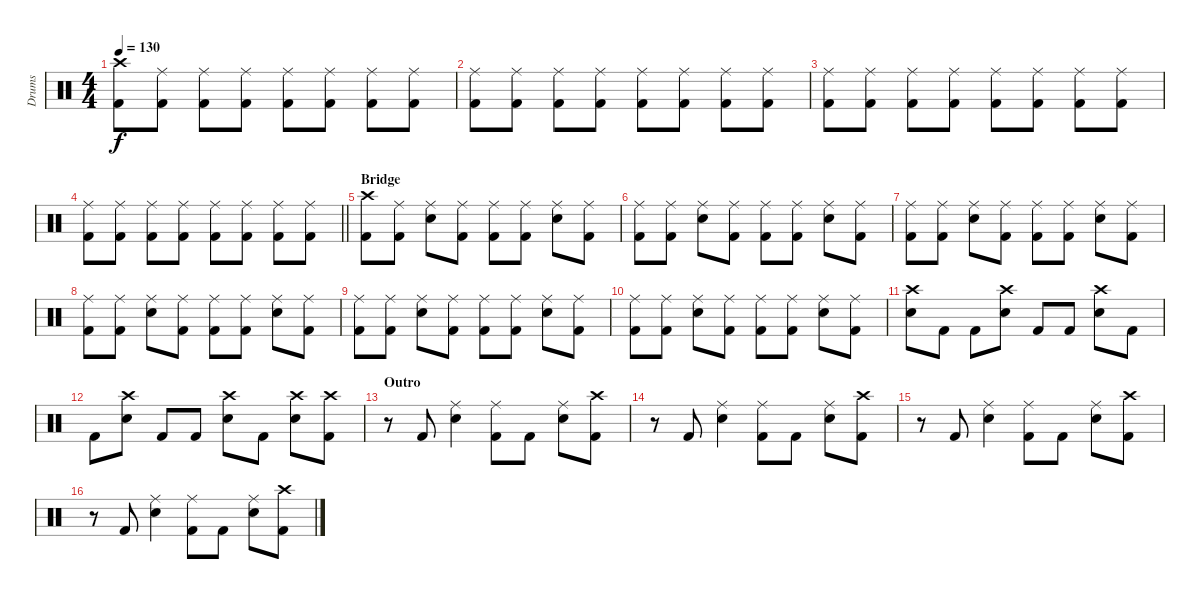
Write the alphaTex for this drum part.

\track ("Drums" "Drums") {instrument percussion}
\staff {score}
\articulation defaults
\ts (4 4)
\tempo 130
\clef neutral
\ks c
("Crash high (hit)" "Kick (hit) 2").8{dy f} ("Ride (middle)" "Kick (hit) 2").8 ("Ride (middle)" "Kick (hit) 2").8 ("Ride (middle)" "Kick (hit) 2").8 ("Ride (middle)" "Kick (hit) 2").8 ("Ride (middle)" "Kick (hit) 2").8 ("Ride (middle)" "Kick (hit) 2").8 ("Ride (middle)" "Kick (hit) 2").8 |
("Ride (middle)" "Kick (hit) 2").8 ("Ride (middle)" "Kick (hit) 2").8 ("Ride (middle)" "Kick (hit) 2").8 ("Ride (middle)" "Kick (hit) 2").8 ("Ride (middle)" "Kick (hit) 2").8 ("Ride (middle)" "Kick (hit) 2").8 ("Ride (middle)" "Kick (hit) 2").8 ("Ride (middle)" "Kick (hit) 2").8 |
("Ride (middle)" "Kick (hit) 2").8 ("Ride (middle)" "Kick (hit) 2").8 ("Ride (middle)" "Kick (hit) 2").8 ("Ride (middle)" "Kick (hit) 2").8 ("Ride (middle)" "Kick (hit) 2").8 ("Ride (middle)" "Kick (hit) 2").8 ("Ride (middle)" "Kick (hit) 2").8 ("Ride (middle)" "Kick (hit) 2").8 |
\barLineRight lightlight
("Ride (middle)" "Kick (hit) 2").8 ("Ride (middle)" "Kick (hit) 2").8 ("Ride (middle)" "Kick (hit) 2").8 ("Ride (middle)" "Kick (hit) 2").8 ("Ride (middle)" "Kick (hit) 2").8 ("Ride (middle)" "Kick (hit) 2").8 ("Ride (middle)" "Kick (hit) 2").8 ("Ride (middle)" "Kick (hit) 2").8 |
\section ("" "Bridge")
("Crash high (hit)" "Kick (hit) 2").8 ("Ride (middle)" "Kick (hit) 2").8 ("Ride (middle)" "Electric Snare (hit)").8 ("Ride (middle)" "Kick (hit) 2").8 ("Ride (middle)" "Kick (hit) 2").8 ("Ride (middle)" "Kick (hit) 2").8 ("Ride (middle)" "Electric Snare (hit)").8 ("Ride (middle)" "Kick (hit) 2").8 |
("Ride (middle)" "Kick (hit) 2").8 ("Ride (middle)" "Kick (hit) 2").8 ("Ride (middle)" "Electric Snare (hit)").8 ("Ride (middle)" "Kick (hit) 2").8 ("Ride (middle)" "Kick (hit) 2").8 ("Ride (middle)" "Kick (hit) 2").8 ("Ride (middle)" "Electric Snare (hit)").8 ("Ride (middle)" "Kick (hit) 2").8 |
("Ride (middle)" "Kick (hit) 2").8 ("Ride (middle)" "Kick (hit) 2").8 ("Ride (middle)" "Electric Snare (hit)").8 ("Ride (middle)" "Kick (hit) 2").8 ("Ride (middle)" "Kick (hit) 2").8 ("Ride (middle)" "Kick (hit) 2").8 ("Ride (middle)" "Electric Snare (hit)").8 ("Ride (middle)" "Kick (hit) 2").8 |
("Ride (middle)" "Kick (hit) 2").8 ("Ride (middle)" "Kick (hit) 2").8 ("Ride (middle)" "Electric Snare (hit)").8 ("Ride (middle)" "Kick (hit) 2").8 ("Ride (middle)" "Kick (hit) 2").8 ("Ride (middle)" "Kick (hit) 2").8 ("Ride (middle)" "Electric Snare (hit)").8 ("Ride (middle)" "Kick (hit) 2").8 |
("Ride (middle)" "Kick (hit) 2").8 ("Ride (middle)" "Kick (hit) 2").8 ("Ride (middle)" "Electric Snare (hit)").8 ("Ride (middle)" "Kick (hit) 2").8 ("Ride (middle)" "Kick (hit) 2").8 ("Ride (middle)" "Kick (hit) 2").8 ("Ride (middle)" "Electric Snare (hit)").8 ("Ride (middle)" "Kick (hit) 2").8 |
("Ride (middle)" "Kick (hit) 2").8 ("Ride (middle)" "Kick (hit) 2").8 ("Ride (middle)" "Electric Snare (hit)").8 ("Ride (middle)" "Kick (hit) 2").8 ("Ride (middle)" "Kick (hit) 2").8 ("Ride (middle)" "Kick (hit) 2").8 ("Ride (middle)" "Electric Snare (hit)").8 ("Ride (middle)" "Kick (hit) 2").8 |
("Crash high (hit)" "Electric Snare (hit)").8 "Kick (hit) 2".8 "Kick (hit) 2".8 ("Crash high (hit)" "Electric Snare (hit)").8 "Kick (hit) 2".8 "Kick (hit) 2".8 ("Crash high (hit)" "Electric Snare (hit)").8 "Kick (hit) 2".8 |
"Kick (hit) 2".8 ("Crash high (hit)" "Electric Snare (hit)").8 "Kick (hit) 2".8 "Kick (hit) 2".8 ("Crash high (hit)" "Electric Snare (hit)").8 "Kick (hit) 2".8 ("Crash high (hit)" "Electric Snare (hit)").8 ("Crash high (hit)" "Kick (hit) 2").8 |
\section ("" "Outro")
r.8 "Kick (hit) 2".8 ("Ride (middle)" "Electric Snare (hit)").4 ("Ride (middle)" "Kick (hit) 2").8 "Kick (hit) 2".8 ("Ride (middle)" "Electric Snare (hit)").8 ("Crash high (hit)" "Kick (hit) 2").8 |
r.8 "Kick (hit) 2".8 ("Ride (middle)" "Electric Snare (hit)").4 ("Ride (middle)" "Kick (hit) 2").8 "Kick (hit) 2".8 ("Ride (middle)" "Electric Snare (hit)").8 ("Crash high (hit)" "Kick (hit) 2").8 |
r.8 "Kick (hit) 2".8 ("Ride (middle)" "Electric Snare (hit)").4 ("Ride (middle)" "Kick (hit) 2").8 "Kick (hit) 2".8 ("Ride (middle)" "Electric Snare (hit)").8 ("Crash high (hit)" "Kick (hit) 2").8 |
r.8 "Kick (hit) 2".8 ("Ride (middle)" "Electric Snare (hit)").4 ("Ride (middle)" "Kick (hit) 2").8 "Kick (hit) 2".8 ("Ride (middle)" "Electric Snare (hit)").8 ("Crash high (hit)" "Kick (hit) 2").8
